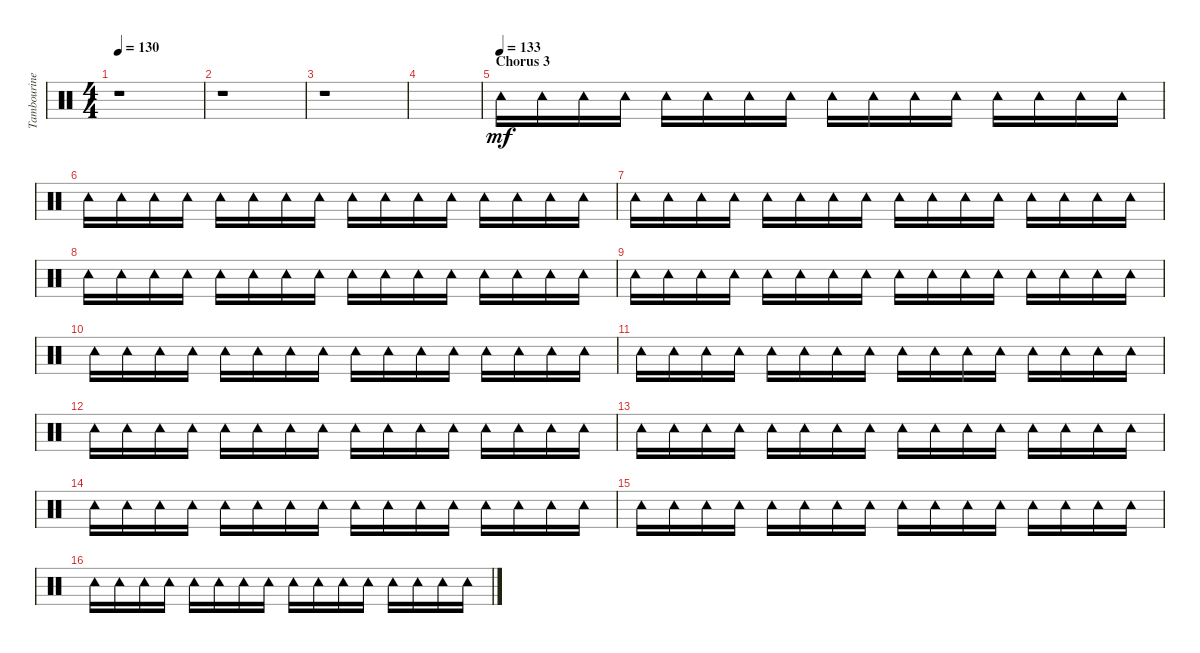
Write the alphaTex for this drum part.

\track ("Tambourine" "Tambourine") {instrument percussion}
\staff {score}
\articulation defaults
\ts (4 4)
\tempo 130
\clef neutral
\ks c
r.1{dy mf} |
r.1 |
r.1 |
|
\section ("" "Chorus 3")
\tempo (133)
"Tambourine (hit)".16 "Tambourine (hit)".16 "Tambourine (hit)".16 "Tambourine (hit)".16 "Tambourine (hit)".16 "Tambourine (hit)".16 "Tambourine (hit)".16 "Tambourine (hit)".16 "Tambourine (hit)".16 "Tambourine (hit)".16 "Tambourine (hit)".16 "Tambourine (hit)".16 "Tambourine (hit)".16 "Tambourine (hit)".16 "Tambourine (hit)".16 "Tambourine (hit)".16 |
"Tambourine (hit)".16 "Tambourine (hit)".16 "Tambourine (hit)".16 "Tambourine (hit)".16 "Tambourine (hit)".16 "Tambourine (hit)".16 "Tambourine (hit)".16 "Tambourine (hit)".16 "Tambourine (hit)".16 "Tambourine (hit)".16 "Tambourine (hit)".16 "Tambourine (hit)".16 "Tambourine (hit)".16 "Tambourine (hit)".16 "Tambourine (hit)".16 "Tambourine (hit)".16 |
"Tambourine (hit)".16 "Tambourine (hit)".16 "Tambourine (hit)".16 "Tambourine (hit)".16 "Tambourine (hit)".16 "Tambourine (hit)".16 "Tambourine (hit)".16 "Tambourine (hit)".16 "Tambourine (hit)".16 "Tambourine (hit)".16 "Tambourine (hit)".16 "Tambourine (hit)".16 "Tambourine (hit)".16 "Tambourine (hit)".16 "Tambourine (hit)".16 "Tambourine (hit)".16 |
"Tambourine (hit)".16 "Tambourine (hit)".16 "Tambourine (hit)".16 "Tambourine (hit)".16 "Tambourine (hit)".16 "Tambourine (hit)".16 "Tambourine (hit)".16 "Tambourine (hit)".16 "Tambourine (hit)".16 "Tambourine (hit)".16 "Tambourine (hit)".16 "Tambourine (hit)".16 "Tambourine (hit)".16 "Tambourine (hit)".16 "Tambourine (hit)".16 "Tambourine (hit)".16 |
"Tambourine (hit)".16 "Tambourine (hit)".16 "Tambourine (hit)".16 "Tambourine (hit)".16 "Tambourine (hit)".16 "Tambourine (hit)".16 "Tambourine (hit)".16 "Tambourine (hit)".16 "Tambourine (hit)".16 "Tambourine (hit)".16 "Tambourine (hit)".16 "Tambourine (hit)".16 "Tambourine (hit)".16 "Tambourine (hit)".16 "Tambourine (hit)".16 "Tambourine (hit)".16 |
"Tambourine (hit)".16 "Tambourine (hit)".16 "Tambourine (hit)".16 "Tambourine (hit)".16 "Tambourine (hit)".16 "Tambourine (hit)".16 "Tambourine (hit)".16 "Tambourine (hit)".16 "Tambourine (hit)".16 "Tambourine (hit)".16 "Tambourine (hit)".16 "Tambourine (hit)".16 "Tambourine (hit)".16 "Tambourine (hit)".16 "Tambourine (hit)".16 "Tambourine (hit)".16 |
"Tambourine (hit)".16 "Tambourine (hit)".16 "Tambourine (hit)".16 "Tambourine (hit)".16 "Tambourine (hit)".16 "Tambourine (hit)".16 "Tambourine (hit)".16 "Tambourine (hit)".16 "Tambourine (hit)".16 "Tambourine (hit)".16 "Tambourine (hit)".16 "Tambourine (hit)".16 "Tambourine (hit)".16 "Tambourine (hit)".16 "Tambourine (hit)".16 "Tambourine (hit)".16 |
"Tambourine (hit)".16 "Tambourine (hit)".16 "Tambourine (hit)".16 "Tambourine (hit)".16 "Tambourine (hit)".16 "Tambourine (hit)".16 "Tambourine (hit)".16 "Tambourine (hit)".16 "Tambourine (hit)".16 "Tambourine (hit)".16 "Tambourine (hit)".16 "Tambourine (hit)".16 "Tambourine (hit)".16 "Tambourine (hit)".16 "Tambourine (hit)".16 "Tambourine (hit)".16 |
"Tambourine (hit)".16 "Tambourine (hit)".16 "Tambourine (hit)".16 "Tambourine (hit)".16 "Tambourine (hit)".16 "Tambourine (hit)".16 "Tambourine (hit)".16 "Tambourine (hit)".16 "Tambourine (hit)".16 "Tambourine (hit)".16 "Tambourine (hit)".16 "Tambourine (hit)".16 "Tambourine (hit)".16 "Tambourine (hit)".16 "Tambourine (hit)".16 "Tambourine (hit)".16 |
"Tambourine (hit)".16 "Tambourine (hit)".16 "Tambourine (hit)".16 "Tambourine (hit)".16 "Tambourine (hit)".16 "Tambourine (hit)".16 "Tambourine (hit)".16 "Tambourine (hit)".16 "Tambourine (hit)".16 "Tambourine (hit)".16 "Tambourine (hit)".16 "Tambourine (hit)".16 "Tambourine (hit)".16 "Tambourine (hit)".16 "Tambourine (hit)".16 "Tambourine (hit)".16 |
"Tambourine (hit)".16 "Tambourine (hit)".16 "Tambourine (hit)".16 "Tambourine (hit)".16 "Tambourine (hit)".16 "Tambourine (hit)".16 "Tambourine (hit)".16 "Tambourine (hit)".16 "Tambourine (hit)".16 "Tambourine (hit)".16 "Tambourine (hit)".16 "Tambourine (hit)".16 "Tambourine (hit)".16 "Tambourine (hit)".16 "Tambourine (hit)".16 "Tambourine (hit)".16 |
"Tambourine (hit)".16 "Tambourine (hit)".16 "Tambourine (hit)".16 "Tambourine (hit)".16 "Tambourine (hit)".16 "Tambourine (hit)".16 "Tambourine (hit)".16 "Tambourine (hit)".16 "Tambourine (hit)".16 "Tambourine (hit)".16 "Tambourine (hit)".16 "Tambourine (hit)".16 "Tambourine (hit)".16 "Tambourine (hit)".16 "Tambourine (hit)".16 "Tambourine (hit)".16
